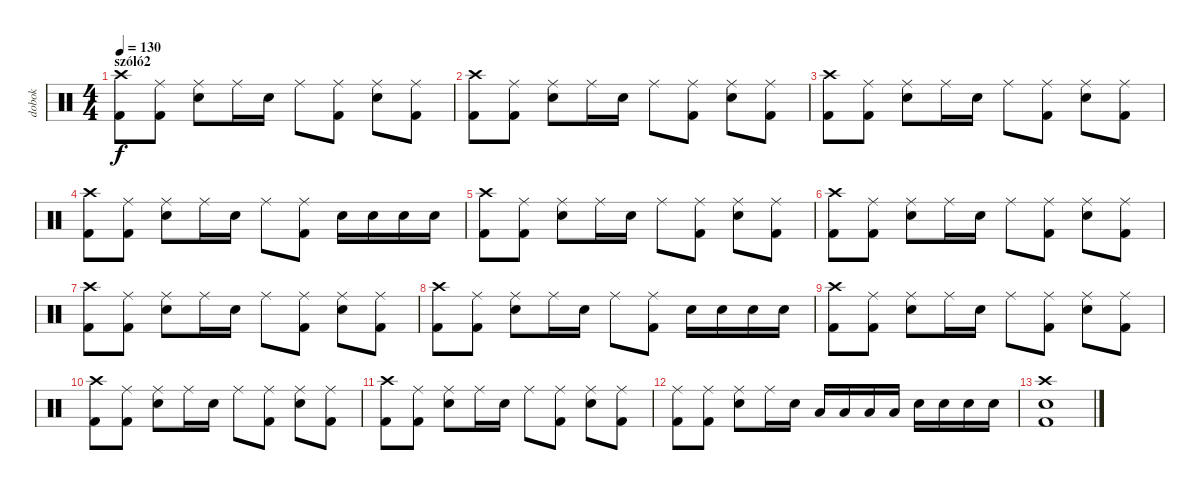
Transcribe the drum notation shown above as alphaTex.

\track ("dobok" "dobok") {instrument percussion}
\staff {score}
\articulation defaults
\ts (4 4)
\section ("" "szóló2")
\tempo 130
\clef neutral
\ks c
("Crash high (hit)" "Kick (hit) 2").8{dy f} ("Ride (middle)" "Kick (hit) 2").8 ("Ride (middle)" "Snare (hit) 2").8 "Ride (middle)".16 "Snare (hit) 2".16 "Ride (middle)".8 ("Ride (middle)" "Kick (hit) 2").8 ("Ride (middle)" "Snare (hit) 2").8 ("Ride (middle)" "Kick (hit) 2").8 |
("Crash high (hit)" "Kick (hit) 2").8 ("Ride (middle)" "Kick (hit) 2").8 ("Ride (middle)" "Snare (hit) 2").8 "Ride (middle)".16 "Snare (hit) 2".16 "Ride (middle)".8 ("Ride (middle)" "Kick (hit) 2").8 ("Ride (middle)" "Snare (hit) 2").8 ("Ride (middle)" "Kick (hit) 2").8 |
("Crash high (hit)" "Kick (hit) 2").8 ("Ride (middle)" "Kick (hit) 2").8 ("Ride (middle)" "Snare (hit) 2").8 "Ride (middle)".16 "Snare (hit) 2".16 "Ride (middle)".8 ("Ride (middle)" "Kick (hit) 2").8 ("Ride (middle)" "Snare (hit) 2").8 ("Ride (middle)" "Kick (hit) 2").8 |
("Crash high (hit)" "Kick (hit) 2").8 ("Ride (middle)" "Kick (hit) 2").8 ("Ride (middle)" "Snare (hit) 2").8 "Ride (middle)".16 "Snare (hit) 2".16 "Ride (middle)".8 ("Ride (middle)" "Kick (hit) 2").8 "Snare (hit) 2".16 "Snare (hit) 2".16 "Snare (hit) 2".16 "Snare (hit) 2".16 |
("Crash high (hit)" "Kick (hit) 2").8 ("Ride (middle)" "Kick (hit) 2").8 ("Ride (middle)" "Snare (hit) 2").8 "Ride (middle)".16 "Snare (hit) 2".16 "Ride (middle)".8 ("Ride (middle)" "Kick (hit) 2").8 ("Ride (middle)" "Snare (hit) 2").8 ("Ride (middle)" "Kick (hit) 2").8 |
("Crash high (hit)" "Kick (hit) 2").8 ("Ride (middle)" "Kick (hit) 2").8 ("Ride (middle)" "Snare (hit) 2").8 "Ride (middle)".16 "Snare (hit) 2".16 "Ride (middle)".8 ("Ride (middle)" "Kick (hit) 2").8 ("Ride (middle)" "Snare (hit) 2").8 ("Ride (middle)" "Kick (hit) 2").8 |
("Crash high (hit)" "Kick (hit) 2").8 ("Ride (middle)" "Kick (hit) 2").8 ("Ride (middle)" "Snare (hit) 2").8 "Ride (middle)".16 "Snare (hit) 2".16 "Ride (middle)".8 ("Ride (middle)" "Kick (hit) 2").8 ("Ride (middle)" "Snare (hit) 2").8 ("Ride (middle)" "Kick (hit) 2").8 |
("Crash high (hit)" "Kick (hit) 2").8 ("Ride (middle)" "Kick (hit) 2").8 ("Ride (middle)" "Snare (hit) 2").8 "Ride (middle)".16 "Snare (hit) 2".16 "Ride (middle)".8 ("Ride (middle)" "Kick (hit) 2").8 "Snare (hit) 2".16 "Snare (hit) 2".16 "Snare (hit) 2".16 "Snare (hit) 2".16 |
("Crash high (hit)" "Kick (hit) 2").8 ("Ride (middle)" "Kick (hit) 2").8 ("Ride (middle)" "Snare (hit) 2").8 "Ride (middle)".16 "Snare (hit) 2".16 "Ride (middle)".8 ("Ride (middle)" "Kick (hit) 2").8 ("Ride (middle)" "Snare (hit) 2").8 ("Ride (middle)" "Kick (hit) 2").8 |
("Crash high (hit)" "Kick (hit) 2").8 ("Ride (middle)" "Kick (hit) 2").8 ("Ride (middle)" "Snare (hit) 2").8 "Ride (middle)".16 "Snare (hit) 2".16 "Ride (middle)".8 ("Ride (middle)" "Kick (hit) 2").8 ("Ride (middle)" "Snare (hit) 2").8 ("Ride (middle)" "Kick (hit) 2").8 |
("Crash high (hit)" "Kick (hit) 2").8 ("Ride (middle)" "Kick (hit) 2").8 ("Ride (middle)" "Snare (hit) 2").8 "Ride (middle)".16 "Snare (hit) 2".16 "Ride (middle)".8 ("Ride (middle)" "Kick (hit) 2").8 ("Ride (middle)" "Snare (hit) 2").8 ("Ride (middle)" "Kick (hit) 2").8 |
("Ride (middle)" "Kick (hit) 2").8 ("Ride (middle)" "Kick (hit) 2").8 ("Ride (middle)" "Snare (hit) 2").8 "Ride (middle)".16 "Snare (hit) 2".16 "Low Floor Tom (hit)".16 "Low Floor Tom (hit)".16 "Low Tom (hit)".16 "Low Tom (hit)".16 "Snare (hit) 2".16 "Snare (hit) 2".16 "Snare (hit) 2".16 "Snare (hit) 2".16 |
("Crash high (hit)" "Kick (hit) 2" "Snare (hit) 2").1
